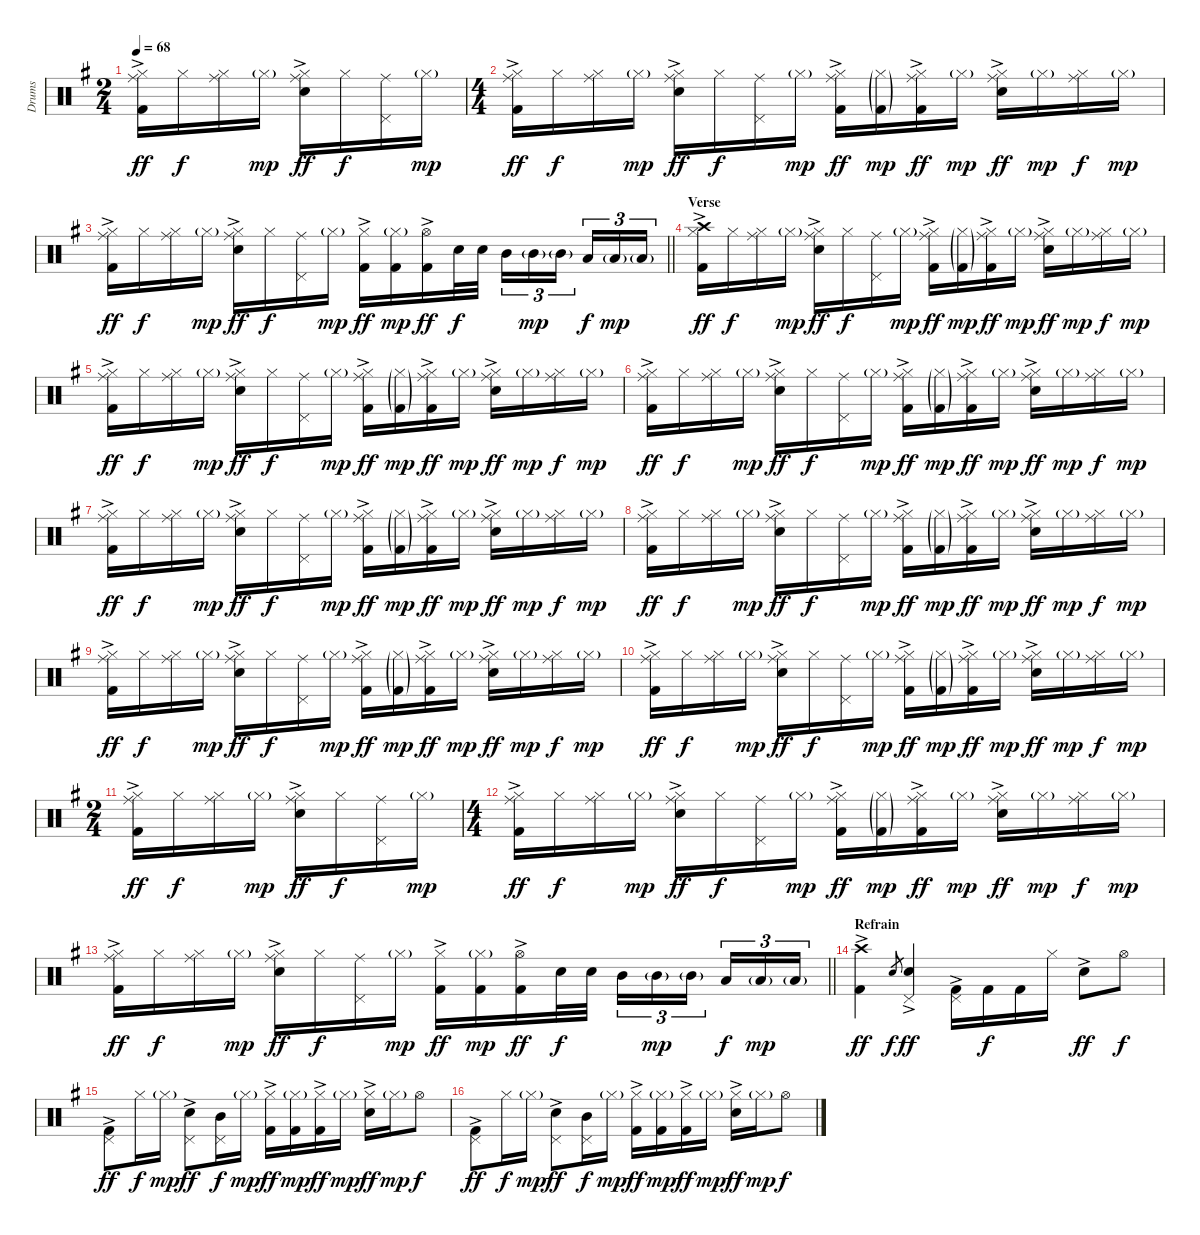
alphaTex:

\track ("Drums" "Drums") {instrument percussion}
\staff {score}
\articulation defaults
\ts (2 4)
\tempo 68
\clef neutral
\ks g
("Hi-Hat (closed)" "Ride (middle)" "Kick (hit) 2"{ac}).16{dy ff} "Hi-Hat (closed)".16{dy f} ("Hi-Hat (closed)" "Ride (middle)").16 "Hi-Hat (closed)"{g}.16{dy mp} ("Hi-Hat (closed)" "Ride (middle)" "Snare (hit) 2"{ac}).16{dy ff} "Hi-Hat (closed)".16{dy f} ("Pedal Hi-Hat (hit)" "Ride (middle)").16 "Hi-Hat (closed)"{g}.16{dy mp} |
\ts (4 4)
("Hi-Hat (closed)" "Ride (middle)" "Kick (hit) 2"{ac}).16{dy ff} "Hi-Hat (closed)".16{dy f} ("Hi-Hat (closed)" "Ride (middle)").16 "Hi-Hat (closed)"{g}.16{dy mp} ("Hi-Hat (closed)" "Ride (middle)" "Snare (hit) 2"{ac}).16{dy ff} "Hi-Hat (closed)".16{dy f} ("Pedal Hi-Hat (hit)" "Ride (middle)").16 "Hi-Hat (closed)"{g}.16{dy mp} ("Hi-Hat (closed)" "Ride (middle)" "Kick (hit) 2"{ac}).16{dy ff} ("Hi-Hat (closed)"{g} "Kick (hit) 2"{g}).16{dy mp} ("Hi-Hat (closed)" "Ride (middle)" "Kick (hit) 2"{ac}).16{dy ff} "Hi-Hat (closed)"{g}.16{dy mp} ("Hi-Hat (closed)" "Ride (middle)" "Snare (hit) 2"{ac}).16{dy ff} "Hi-Hat (closed)"{g}.16{dy mp} ("Hi-Hat (closed)" "Ride (middle)").16{dy f} "Hi-Hat (closed)"{g}.16{dy mp} |
\barLineRight lightlight
("Hi-Hat (closed)" "Ride (middle)" "Kick (hit) 2"{ac}).16{dy ff} "Hi-Hat (closed)".16{dy f} ("Hi-Hat (closed)" "Ride (middle)").16 "Hi-Hat (closed)"{g}.16{dy mp} ("Hi-Hat (closed)" "Ride (middle)" "Snare (hit) 2"{ac}).16{dy ff} "Hi-Hat (closed)".16{dy f} ("Pedal Hi-Hat (hit)" "Ride (middle)").16 "Hi-Hat (closed)"{g}.16{dy mp} ("Hi-Hat (closed)" "Kick (hit) 2"{ac}).16{dy ff} ("Hi-Hat (closed)"{g} "Kick (hit) 2").16{dy mp} ("Hi-Hat (open)" "Kick (hit) 2"{ac}).16{dy ff} "Snare (hit) 2".32{dy f} "Snare (hit) 2".32 "Mid Tom (hit)".16{tu (3 2)} "Mid Tom (hit)"{g}.16{tu (3 2) dy mp} "Mid Tom (hit)"{g}.16{tu (3 2) beam splitsecondary} "Low Tom (hit)".16{tu (3 2) dy f} "Low Tom (hit)"{g}.16{tu (3 2) dy mp} "Low Floor Tom (hit)"{g}.16{tu (3 2)} |
\section ("" "Verse")
("Hi-Hat (closed)" "Crash high (hit)" "Kick (hit) 2"{ac}).16{dy ff} "Hi-Hat (closed)".16{dy f} ("Hi-Hat (closed)" "Ride (middle)").16 "Hi-Hat (closed)"{g}.16{dy mp} ("Hi-Hat (closed)" "Ride (middle)" "Snare (hit) 2"{ac}).16{dy ff} "Hi-Hat (closed)".16{dy f} ("Pedal Hi-Hat (hit)" "Ride (middle)").16 "Hi-Hat (closed)"{g}.16{dy mp} ("Hi-Hat (closed)" "Ride (middle)" "Kick (hit) 2"{ac}).16{dy ff} ("Hi-Hat (closed)"{g} "Kick (hit) 2"{g}).16{dy mp} ("Hi-Hat (closed)" "Ride (middle)" "Kick (hit) 2"{ac}).16{dy ff} "Hi-Hat (closed)"{g}.16{dy mp} ("Hi-Hat (closed)" "Ride (middle)" "Snare (hit) 2"{ac}).16{dy ff} "Hi-Hat (closed)"{g}.16{dy mp} ("Hi-Hat (closed)" "Ride (middle)").16{dy f} "Hi-Hat (closed)"{g}.16{dy mp} |
("Hi-Hat (closed)" "Ride (middle)" "Kick (hit) 2"{ac}).16{dy ff} "Hi-Hat (closed)".16{dy f} ("Hi-Hat (closed)" "Ride (middle)").16 "Hi-Hat (closed)"{g}.16{dy mp} ("Hi-Hat (closed)" "Ride (middle)" "Snare (hit) 2"{ac}).16{dy ff} "Hi-Hat (closed)".16{dy f} ("Pedal Hi-Hat (hit)" "Ride (middle)").16 "Hi-Hat (closed)"{g}.16{dy mp} ("Hi-Hat (closed)" "Ride (middle)" "Kick (hit) 2"{ac}).16{dy ff} ("Hi-Hat (closed)"{g} "Kick (hit) 2"{g}).16{dy mp} ("Hi-Hat (closed)" "Ride (middle)" "Kick (hit) 2"{ac}).16{dy ff} "Hi-Hat (closed)"{g}.16{dy mp} ("Hi-Hat (closed)" "Ride (middle)" "Snare (hit) 2"{ac}).16{dy ff} "Hi-Hat (closed)"{g}.16{dy mp} ("Hi-Hat (closed)" "Ride (middle)").16{dy f} "Hi-Hat (closed)"{g}.16{dy mp} |
("Hi-Hat (closed)" "Ride (middle)" "Kick (hit) 2"{ac}).16{dy ff} "Hi-Hat (closed)".16{dy f} ("Hi-Hat (closed)" "Ride (middle)").16 "Hi-Hat (closed)"{g}.16{dy mp} ("Hi-Hat (closed)" "Ride (middle)" "Snare (hit) 2"{ac}).16{dy ff} "Hi-Hat (closed)".16{dy f} ("Pedal Hi-Hat (hit)" "Ride (middle)").16 "Hi-Hat (closed)"{g}.16{dy mp} ("Hi-Hat (closed)" "Ride (middle)" "Kick (hit) 2"{ac}).16{dy ff} ("Hi-Hat (closed)"{g} "Kick (hit) 2"{g}).16{dy mp} ("Hi-Hat (closed)" "Ride (middle)" "Kick (hit) 2"{ac}).16{dy ff} "Hi-Hat (closed)"{g}.16{dy mp} ("Hi-Hat (closed)" "Ride (middle)" "Snare (hit) 2"{ac}).16{dy ff} "Hi-Hat (closed)"{g}.16{dy mp} ("Hi-Hat (closed)" "Ride (middle)").16{dy f} "Hi-Hat (closed)"{g}.16{dy mp} |
("Hi-Hat (closed)" "Ride (middle)" "Kick (hit) 2"{ac}).16{dy ff} "Hi-Hat (closed)".16{dy f} ("Hi-Hat (closed)" "Ride (middle)").16 "Hi-Hat (closed)"{g}.16{dy mp} ("Hi-Hat (closed)" "Ride (middle)" "Snare (hit) 2"{ac}).16{dy ff} "Hi-Hat (closed)".16{dy f} ("Pedal Hi-Hat (hit)" "Ride (middle)").16 "Hi-Hat (closed)"{g}.16{dy mp} ("Hi-Hat (closed)" "Ride (middle)" "Kick (hit) 2"{ac}).16{dy ff} ("Hi-Hat (closed)"{g} "Kick (hit) 2"{g}).16{dy mp} ("Hi-Hat (closed)" "Ride (middle)" "Kick (hit) 2"{ac}).16{dy ff} "Hi-Hat (closed)"{g}.16{dy mp} ("Hi-Hat (closed)" "Ride (middle)" "Snare (hit) 2"{ac}).16{dy ff} "Hi-Hat (closed)"{g}.16{dy mp} ("Hi-Hat (closed)" "Ride (middle)").16{dy f} "Hi-Hat (closed)"{g}.16{dy mp} |
("Hi-Hat (closed)" "Ride (middle)" "Kick (hit) 2"{ac}).16{dy ff} "Hi-Hat (closed)".16{dy f} ("Hi-Hat (closed)" "Ride (middle)").16 "Hi-Hat (closed)"{g}.16{dy mp} ("Hi-Hat (closed)" "Ride (middle)" "Snare (hit) 2"{ac}).16{dy ff} "Hi-Hat (closed)".16{dy f} ("Pedal Hi-Hat (hit)" "Ride (middle)").16 "Hi-Hat (closed)"{g}.16{dy mp} ("Hi-Hat (closed)" "Ride (middle)" "Kick (hit) 2"{ac}).16{dy ff} ("Hi-Hat (closed)"{g} "Kick (hit) 2"{g}).16{dy mp} ("Hi-Hat (closed)" "Ride (middle)" "Kick (hit) 2"{ac}).16{dy ff} "Hi-Hat (closed)"{g}.16{dy mp} ("Hi-Hat (closed)" "Ride (middle)" "Snare (hit) 2"{ac}).16{dy ff} "Hi-Hat (closed)"{g}.16{dy mp} ("Hi-Hat (closed)" "Ride (middle)").16{dy f} "Hi-Hat (closed)"{g}.16{dy mp} |
("Hi-Hat (closed)" "Ride (middle)" "Kick (hit) 2"{ac}).16{dy ff} "Hi-Hat (closed)".16{dy f} ("Hi-Hat (closed)" "Ride (middle)").16 "Hi-Hat (closed)"{g}.16{dy mp} ("Hi-Hat (closed)" "Ride (middle)" "Snare (hit) 2"{ac}).16{dy ff} "Hi-Hat (closed)".16{dy f} ("Pedal Hi-Hat (hit)" "Ride (middle)").16 "Hi-Hat (closed)"{g}.16{dy mp} ("Hi-Hat (closed)" "Ride (middle)" "Kick (hit) 2"{ac}).16{dy ff} ("Hi-Hat (closed)"{g} "Kick (hit) 2"{g}).16{dy mp} ("Hi-Hat (closed)" "Ride (middle)" "Kick (hit) 2"{ac}).16{dy ff} "Hi-Hat (closed)"{g}.16{dy mp} ("Hi-Hat (closed)" "Ride (middle)" "Snare (hit) 2"{ac}).16{dy ff} "Hi-Hat (closed)"{g}.16{dy mp} ("Hi-Hat (closed)" "Ride (middle)").16{dy f} "Hi-Hat (closed)"{g}.16{dy mp} |
("Hi-Hat (closed)" "Ride (middle)" "Kick (hit) 2"{ac}).16{dy ff} "Hi-Hat (closed)".16{dy f} ("Hi-Hat (closed)" "Ride (middle)").16 "Hi-Hat (closed)"{g}.16{dy mp} ("Hi-Hat (closed)" "Ride (middle)" "Snare (hit) 2"{ac}).16{dy ff} "Hi-Hat (closed)".16{dy f} ("Pedal Hi-Hat (hit)" "Ride (middle)").16 "Hi-Hat (closed)"{g}.16{dy mp} ("Hi-Hat (closed)" "Ride (middle)" "Kick (hit) 2"{ac}).16{dy ff} ("Hi-Hat (closed)"{g} "Kick (hit) 2"{g}).16{dy mp} ("Hi-Hat (closed)" "Ride (middle)" "Kick (hit) 2"{ac}).16{dy ff} "Hi-Hat (closed)"{g}.16{dy mp} ("Hi-Hat (closed)" "Ride (middle)" "Snare (hit) 2"{ac}).16{dy ff} "Hi-Hat (closed)"{g}.16{dy mp} ("Hi-Hat (closed)" "Ride (middle)").16{dy f} "Hi-Hat (closed)"{g}.16{dy mp} |
\ts (2 4)
("Hi-Hat (closed)" "Ride (middle)" "Kick (hit) 2"{ac}).16{dy ff} "Hi-Hat (closed)".16{dy f} ("Hi-Hat (closed)" "Ride (middle)").16 "Hi-Hat (closed)"{g}.16{dy mp} ("Hi-Hat (closed)" "Ride (middle)" "Snare (hit) 2"{ac}).16{dy ff} "Hi-Hat (closed)".16{dy f} ("Pedal Hi-Hat (hit)" "Ride (middle)").16 "Hi-Hat (closed)"{g}.16{dy mp} |
\ts (4 4)
("Hi-Hat (closed)" "Ride (middle)" "Kick (hit) 2"{ac}).16{dy ff} "Hi-Hat (closed)".16{dy f} ("Hi-Hat (closed)" "Ride (middle)").16 "Hi-Hat (closed)"{g}.16{dy mp} ("Hi-Hat (closed)" "Ride (middle)" "Snare (hit) 2"{ac}).16{dy ff} "Hi-Hat (closed)".16{dy f} ("Pedal Hi-Hat (hit)" "Ride (middle)").16 "Hi-Hat (closed)"{g}.16{dy mp} ("Hi-Hat (closed)" "Ride (middle)" "Kick (hit) 2"{ac}).16{dy ff} ("Hi-Hat (closed)"{g} "Kick (hit) 2"{g}).16{dy mp} ("Hi-Hat (closed)" "Ride (middle)" "Kick (hit) 2"{ac}).16{dy ff} "Hi-Hat (closed)"{g}.16{dy mp} ("Hi-Hat (closed)" "Ride (middle)" "Snare (hit) 2"{ac}).16{dy ff} "Hi-Hat (closed)"{g}.16{dy mp} ("Hi-Hat (closed)" "Ride (middle)").16{dy f} "Hi-Hat (closed)"{g}.16{dy mp} |
\barLineRight lightlight
("Hi-Hat (closed)" "Ride (middle)" "Kick (hit) 2"{ac}).16{dy ff} "Hi-Hat (closed)".16{dy f} ("Hi-Hat (closed)" "Ride (middle)").16 "Hi-Hat (closed)"{g}.16{dy mp} ("Hi-Hat (closed)" "Ride (middle)" "Snare (hit) 2"{ac}).16{dy ff} "Hi-Hat (closed)".16{dy f} ("Pedal Hi-Hat (hit)" "Ride (middle)").16 "Hi-Hat (closed)"{g}.16{dy mp} ("Hi-Hat (closed)" "Kick (hit) 2"{ac}).16{dy ff} ("Hi-Hat (closed)"{g} "Kick (hit) 2").16{dy mp} ("Hi-Hat (open)" "Kick (hit) 2"{ac}).16{dy ff} "Snare (hit) 2".32{dy f} "Snare (hit) 2".32 "Mid Tom (hit)".16{tu (3 2)} "Mid Tom (hit)"{g}.16{tu (3 2) dy mp} "Mid Tom (hit)"{g}.16{tu (3 2) beam splitsecondary} "Low Tom (hit)".16{tu (3 2) dy f} "Low Tom (hit)"{g}.16{tu (3 2) dy mp} "Low Floor Tom (hit)"{g}.16{tu (3 2)} |
\section ("" "Refrain")
("Crash high (hit)" "Kick (hit) 2"{ac}).4{dy ff} "Snare (hit) 2".8{gr dy f} ("Pedal Hi-Hat (hit)" "Snare (hit) 2"{ac}).4{dy ff} ("Pedal Hi-Hat (hit)" "Kick (hit) 2"{ac}).16 "Kick (hit) 2".16{dy f} "Kick (hit) 2".16 "Hi-Hat (closed)".16 "Snare (hit) 2"{ac}.8{dy ff} "Hi-Hat (open)".8{dy f} |
("Pedal Hi-Hat (hit)" "Kick (hit) 2"{ac}).8{dy ff} "Hi-Hat (closed)".16{dy f} "Hi-Hat (closed)"{g}.16{dy mp} ("Pedal Hi-Hat (hit)" "Snare (hit) 2"{ac}).8{dy ff} ("Pedal Hi-Hat (hit)" "Mid Tom (hit)").16{dy f} "Hi-Hat (closed)"{g}.16{dy mp} ("Hi-Hat (closed)" "Kick (hit) 2"{ac}).16{dy ff} ("Hi-Hat (closed)"{g} "Kick (hit) 2").16{dy mp} ("Hi-Hat (closed)" "Kick (hit) 2"{ac}).16{dy ff} "Hi-Hat (closed)"{g}.16{dy mp} ("Hi-Hat (closed)" "Snare (hit) 2"{ac}).16{dy ff} "Hi-Hat (closed)"{g}.16{dy mp} "Hi-Hat (open)".8{dy f} |
("Pedal Hi-Hat (hit)" "Kick (hit) 2"{ac}).8{dy ff} "Hi-Hat (closed)".16{dy f} "Hi-Hat (closed)"{g}.16{dy mp} ("Pedal Hi-Hat (hit)" "Snare (hit) 2"{ac}).8{dy ff} ("Pedal Hi-Hat (hit)" "Mid Tom (hit)").16{dy f} "Hi-Hat (closed)"{g}.16{dy mp} ("Hi-Hat (closed)" "Kick (hit) 2"{ac}).16{dy ff} ("Hi-Hat (closed)"{g} "Kick (hit) 2").16{dy mp} ("Hi-Hat (closed)" "Kick (hit) 2"{ac}).16{dy ff} "Hi-Hat (closed)"{g}.16{dy mp} ("Hi-Hat (closed)" "Snare (hit) 2"{ac}).16{dy ff} "Hi-Hat (closed)"{g}.16{dy mp} "Hi-Hat (open)".8{dy f}
